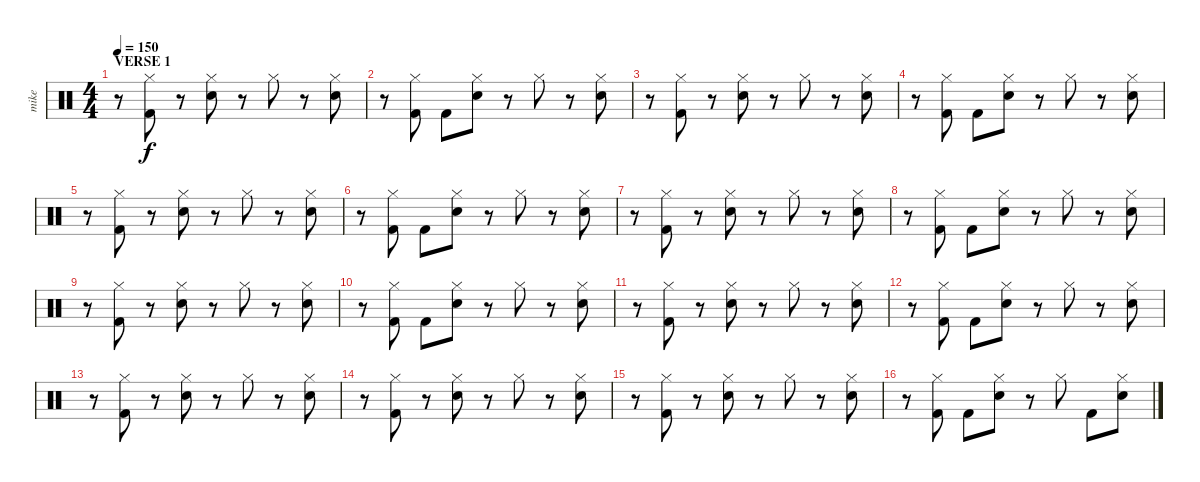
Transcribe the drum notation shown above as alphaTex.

\track ("mike" "mike") {instrument percussion}
\staff {score}
\articulation defaults
\ts (4 4)
\section ("" "VERSE 1")
\tempo 150
\clef neutral
\ks c
r.8{dy f} ("Hi-Hat (closed)" "Kick (hit) 2").8 r.8 ("Hi-Hat (closed)" "Electric Snare (hit)").8 r.8 "Hi-Hat (closed)".8 r.8 ("Hi-Hat (closed)" "Electric Snare (hit)").8 |
r.8 ("Hi-Hat (closed)" "Kick (hit) 2").8 "Kick (hit) 2".8 ("Hi-Hat (closed)" "Electric Snare (hit)").8 r.8 "Hi-Hat (closed)".8 r.8 ("Hi-Hat (closed)" "Electric Snare (hit)").8 |
r.8 ("Hi-Hat (closed)" "Kick (hit) 2").8 r.8 ("Hi-Hat (closed)" "Electric Snare (hit)").8 r.8 "Hi-Hat (closed)".8 r.8 ("Hi-Hat (closed)" "Electric Snare (hit)").8 |
r.8 ("Hi-Hat (closed)" "Kick (hit) 2").8 "Kick (hit) 2".8 ("Hi-Hat (closed)" "Electric Snare (hit)").8 r.8 "Hi-Hat (closed)".8 r.8 ("Hi-Hat (closed)" "Electric Snare (hit)").8 |
r.8 ("Hi-Hat (closed)" "Kick (hit) 2").8 r.8 ("Hi-Hat (closed)" "Electric Snare (hit)").8 r.8 "Hi-Hat (closed)".8 r.8 ("Hi-Hat (closed)" "Electric Snare (hit)").8 |
r.8 ("Hi-Hat (closed)" "Kick (hit) 2").8 "Kick (hit) 2".8 ("Hi-Hat (closed)" "Electric Snare (hit)").8 r.8 "Hi-Hat (closed)".8 r.8 ("Hi-Hat (closed)" "Electric Snare (hit)").8 |
r.8 ("Hi-Hat (closed)" "Kick (hit) 2").8 r.8 ("Hi-Hat (closed)" "Electric Snare (hit)").8 r.8 "Hi-Hat (closed)".8 r.8 ("Hi-Hat (closed)" "Electric Snare (hit)").8 |
r.8 ("Hi-Hat (closed)" "Kick (hit) 2").8 "Kick (hit) 2".8 ("Hi-Hat (closed)" "Electric Snare (hit)").8 r.8 "Hi-Hat (closed)".8 r.8 ("Hi-Hat (closed)" "Electric Snare (hit)").8 |
r.8 ("Hi-Hat (closed)" "Kick (hit) 2").8 r.8 ("Hi-Hat (closed)" "Electric Snare (hit)").8 r.8 "Hi-Hat (closed)".8 r.8 ("Hi-Hat (closed)" "Electric Snare (hit)").8 |
r.8 ("Hi-Hat (closed)" "Kick (hit) 2").8 "Kick (hit) 2".8 ("Hi-Hat (closed)" "Electric Snare (hit)").8 r.8 "Hi-Hat (closed)".8 r.8 ("Hi-Hat (closed)" "Electric Snare (hit)").8 |
r.8 ("Hi-Hat (closed)" "Kick (hit) 2").8 r.8 ("Hi-Hat (closed)" "Electric Snare (hit)").8 r.8 "Hi-Hat (closed)".8 r.8 ("Hi-Hat (closed)" "Electric Snare (hit)").8 |
r.8 ("Hi-Hat (closed)" "Kick (hit) 2").8 "Kick (hit) 2".8 ("Hi-Hat (closed)" "Electric Snare (hit)").8 r.8 "Hi-Hat (closed)".8 r.8 ("Hi-Hat (closed)" "Electric Snare (hit)").8 |
r.8 ("Hi-Hat (closed)" "Kick (hit) 2").8 r.8 ("Hi-Hat (closed)" "Electric Snare (hit)").8 r.8 "Hi-Hat (closed)".8 r.8 ("Hi-Hat (closed)" "Electric Snare (hit)").8 |
r.8 ("Hi-Hat (closed)" "Kick (hit) 2").8 r.8 ("Hi-Hat (closed)" "Electric Snare (hit)").8 r.8 "Hi-Hat (closed)".8 r.8 ("Hi-Hat (closed)" "Electric Snare (hit)").8 |
r.8 ("Hi-Hat (closed)" "Kick (hit) 2").8 r.8 ("Hi-Hat (closed)" "Electric Snare (hit)").8 r.8 "Hi-Hat (closed)".8 r.8 ("Hi-Hat (closed)" "Electric Snare (hit)").8 |
r.8 ("Hi-Hat (closed)" "Kick (hit) 2").8 "Kick (hit) 2".8 ("Hi-Hat (closed)" "Electric Snare (hit)").8 r.8 "Hi-Hat (closed)".8 "Kick (hit) 2".8 ("Hi-Hat (closed)" "Electric Snare (hit)").8
